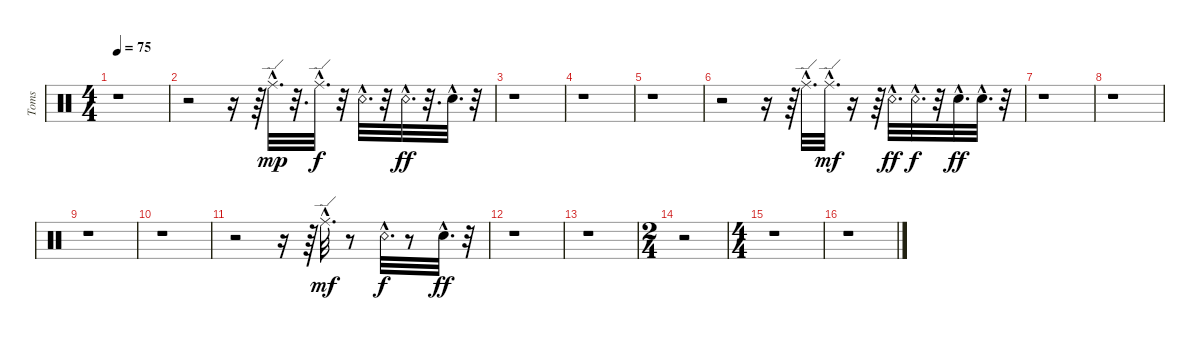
\track ("Toms" "Toms") {instrument percussion}
\staff {score}
\articulation defaults
\ts (4 4)
\tempo 75
\clef neutral
\ks c
r.1{dy ff} |
r.2 r.16 r.64 "Ride (edge)"{hac}.32{d dy mp} r.32{d} "Ride (edge)"{hac}.32{d dy f} r.32 "Snare (rim shot)"{hac}.32{d} r.32 "Snare (rim shot)"{hac}.32{d dy ff} r.32{d} "Snare (hit)"{hac}.32{d} r.32 |
r.1 |
r.1 |
r.1 |
r.2 r.16 r.64 "Ride (edge)"{hac}.32{d} "Ride (edge)"{hac}.32{d dy mf} r.16 r.64 "Snare (rim shot)"{hac}.32{d dy ff} "Snare (rim shot)"{hac}.32{d dy f} r.32 "Snare (hit)"{hac}.32{d dy ff} "Snare (hit)"{hac}.32{d} r.32 |
r.1 |
r.1 |
r.1 |
r.1 |
r.2 r.16 r.64 "Ride (edge)"{hac}.32{d dy mf} r.8 "Snare (rim shot)"{hac}.32{d dy f} r.8 "Snare (hit)"{hac}.32{d dy ff} r.32 |
r.1 |
r.1 |
\ts (2 4)
r.2 |
\ts (4 4)
r.1 |
r.1
